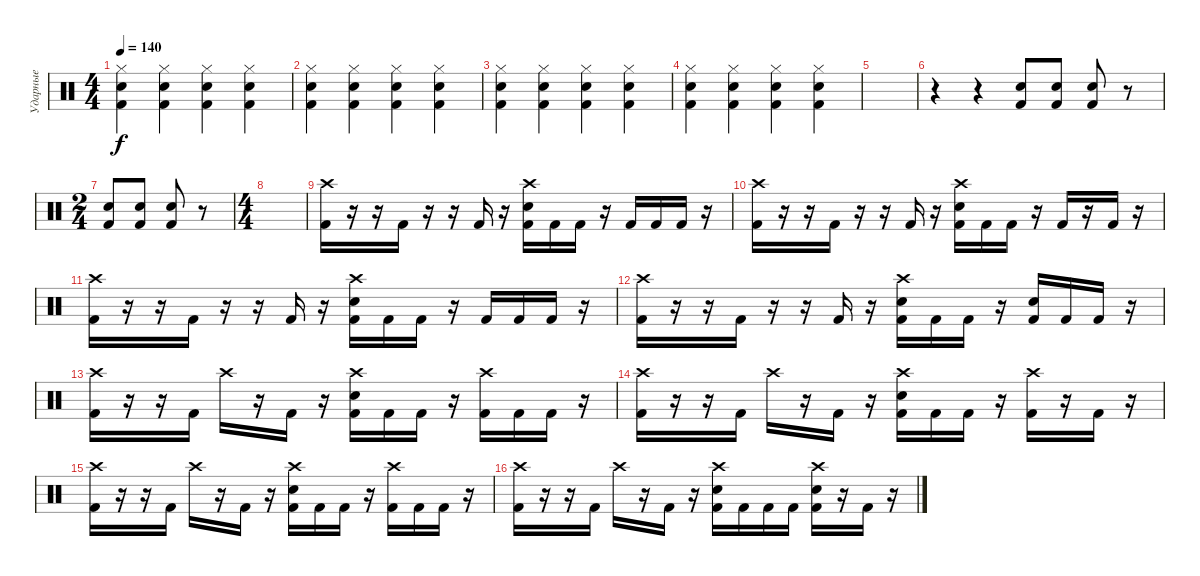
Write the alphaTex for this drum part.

\track ("Ударные" "Ударные") {instrument percussion}
\staff {score}
\articulation defaults
\ts (4 4)
\tempo 140
\clef neutral
\ks c
("Hi-Hat (closed)" "Hand Clap (hit)" "Kick (hit) 2").4{dy f} ("Hi-Hat (closed)" "Hand Clap (hit)" "Kick (hit) 2").4 ("Hi-Hat (closed)" "Hand Clap (hit)" "Kick (hit) 2").4 ("Hi-Hat (closed)" "Hand Clap (hit)" "Kick (hit) 2").4 |
("Hi-Hat (closed)" "Hand Clap (hit)" "Kick (hit) 2").4 ("Hi-Hat (closed)" "Hand Clap (hit)" "Kick (hit) 2").4 ("Hi-Hat (closed)" "Hand Clap (hit)" "Kick (hit) 2").4 ("Hi-Hat (closed)" "Hand Clap (hit)" "Kick (hit) 2").4 |
("Hi-Hat (closed)" "Hand Clap (hit)" "Kick (hit) 2").4 ("Hi-Hat (closed)" "Hand Clap (hit)" "Kick (hit) 2").4 ("Hi-Hat (closed)" "Hand Clap (hit)" "Kick (hit) 2").4 ("Hi-Hat (closed)" "Hand Clap (hit)" "Kick (hit) 2").4 |
("Hi-Hat (closed)" "Hand Clap (hit)" "Kick (hit) 2").4 ("Hi-Hat (closed)" "Hand Clap (hit)" "Kick (hit) 2").4 ("Hi-Hat (closed)" "Hand Clap (hit)" "Kick (hit) 2").4 ("Hi-Hat (closed)" "Hand Clap (hit)" "Kick (hit) 2").4 |
|
r.4 r.4 ("Electric Snare (hit)" "Kick (hit) 2").8 ("Electric Snare (hit)" "Kick (hit) 2").8 ("Electric Snare (hit)" "Kick (hit) 2").8 r.8 |
\ts (2 4)
("Electric Snare (hit)" "Kick (hit) 2").8 ("Electric Snare (hit)" "Kick (hit) 2").8 ("Electric Snare (hit)" "Kick (hit) 2").8 r.8 |
\ts (4 4)
|
("Crash high (hit)" "Kick (hit) 2").16 r.16 r.16 "Kick (hit) 2".16 r.16 r.16 "Kick (hit) 2".16 r.16 ("Crash high (hit)" "Electric Snare (hit)" "Kick (hit) 2").16 "Kick (hit) 2".16 "Kick (hit) 2".16 r.16 "Kick (hit) 2".16 "Kick (hit) 2".16 "Kick (hit) 2".16 r.16 |
("Crash high (hit)" "Kick (hit) 2").16 r.16 r.16 "Kick (hit) 2".16 r.16 r.16 "Kick (hit) 2".16 r.16 ("Crash high (hit)" "Electric Snare (hit)" "Kick (hit) 2").16 "Kick (hit) 2".16 "Kick (hit) 2".16 r.16 "Kick (hit) 2".16 r.16 "Kick (hit) 2".16 r.16 |
("Crash high (hit)" "Kick (hit) 2").16 r.16 r.16 "Kick (hit) 2".16 r.16 r.16 "Kick (hit) 2".16 r.16 ("Crash high (hit)" "Electric Snare (hit)" "Kick (hit) 2").16 "Kick (hit) 2".16 "Kick (hit) 2".16 r.16 "Kick (hit) 2".16 "Kick (hit) 2".16 "Kick (hit) 2".16 r.16 |
("Crash high (hit)" "Kick (hit) 2").16 r.16 r.16 "Kick (hit) 2".16 r.16 r.16 "Kick (hit) 2".16 r.16 ("Crash high (hit)" "Electric Snare (hit)" "Kick (hit) 2").16 "Kick (hit) 2".16 "Kick (hit) 2".16 r.16 ("Electric Snare (hit)" "Kick (hit) 2").16 "Kick (hit) 2".16 "Kick (hit) 2".16 r.16 |
("Crash high (hit)" "Kick (hit) 2").16 r.16 r.16 "Kick (hit) 2".16 "Crash high (hit)".16 r.16 "Kick (hit) 2".16 r.16 ("Crash high (hit)" "Electric Snare (hit)" "Kick (hit) 2").16 "Kick (hit) 2".16 "Kick (hit) 2".16 r.16 ("Crash high (hit)" "Kick (hit) 2").16 "Kick (hit) 2".16 "Kick (hit) 2".16 r.16 |
("Crash high (hit)" "Kick (hit) 2").16 r.16 r.16 "Kick (hit) 2".16 "Crash high (hit)".16 r.16 "Kick (hit) 2".16 r.16 ("Crash high (hit)" "Electric Snare (hit)" "Kick (hit) 2").16 "Kick (hit) 2".16 "Kick (hit) 2".16 r.16 ("Crash high (hit)" "Kick (hit) 2").16 r.16 "Kick (hit) 2".16 r.16 |
("Crash high (hit)" "Kick (hit) 2").16 r.16 r.16 "Kick (hit) 2".16 "Crash high (hit)".16 r.16 "Kick (hit) 2".16 r.16 ("Crash high (hit)" "Electric Snare (hit)" "Kick (hit) 2").16 "Kick (hit) 2".16 "Kick (hit) 2".16 r.16 ("Crash high (hit)" "Kick (hit) 2").16 "Kick (hit) 2".16 "Kick (hit) 2".16 r.16 |
("Crash high (hit)" "Kick (hit) 2").16 r.16 r.16 "Kick (hit) 2".16 "Crash high (hit)".16 r.16 "Kick (hit) 2".16 r.16 ("Crash high (hit)" "Electric Snare (hit)" "Kick (hit) 2").16 "Kick (hit) 2".16 "Kick (hit) 2".16 "Kick (hit) 2".16 ("Crash high (hit)" "Electric Snare (hit)" "Kick (hit) 2").16 r.16 "Kick (hit) 2".16 r.16
